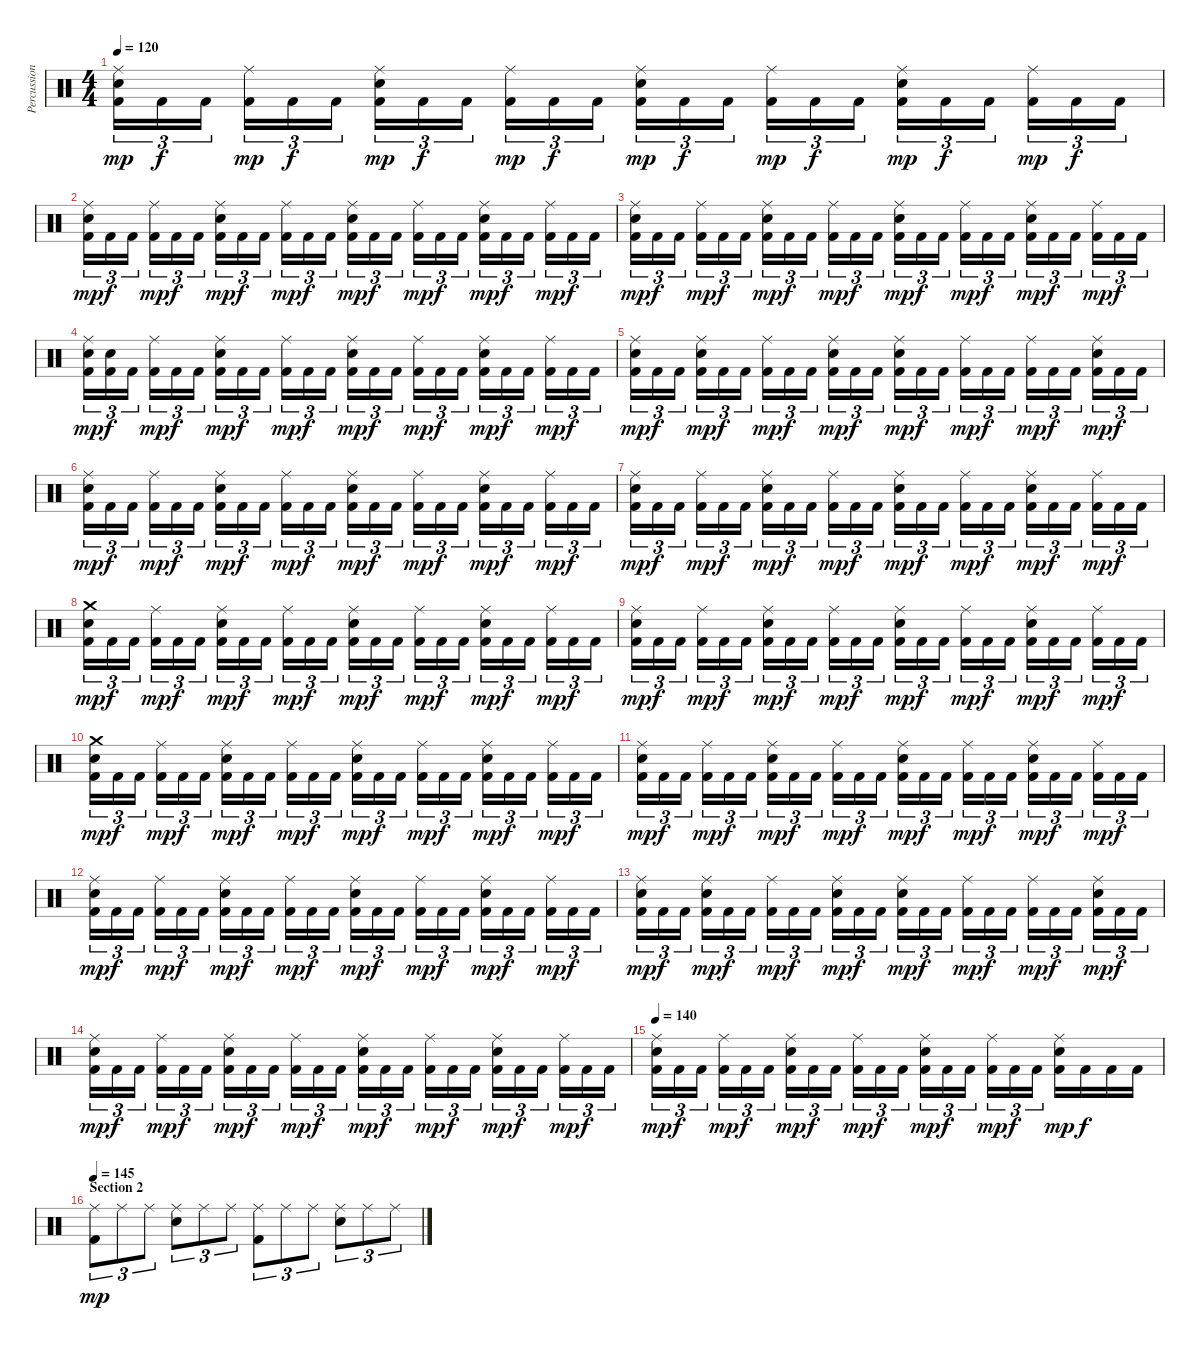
\track ("Percussion" "Percussion") {instrument percussion}
\staff {score}
\articulation defaults
\ts (4 4)
\tempo 120
\clef neutral
\ks c
("Ride (middle)" "Electric Snare (hit)" "Kick (hit) 2").16{tu (3 2) dy mp} "Kick (hit) 2".16{tu (3 2) dy f} "Kick (hit) 2".16{tu (3 2)} ("Ride (middle)" "Kick (hit) 2").16{tu (3 2) dy mp} "Kick (hit) 2".16{tu (3 2) dy f} "Kick (hit) 2".16{tu (3 2)} ("Ride (middle)" "Electric Snare (hit)" "Kick (hit) 2").16{tu (3 2) dy mp} "Kick (hit) 2".16{tu (3 2) dy f} "Kick (hit) 2".16{tu (3 2)} ("Ride (middle)" "Kick (hit) 2").16{tu (3 2) dy mp} "Kick (hit) 2".16{tu (3 2) dy f} "Kick (hit) 2".16{tu (3 2)} ("Ride (middle)" "Electric Snare (hit)" "Kick (hit) 2").16{tu (3 2) dy mp} "Kick (hit) 2".16{tu (3 2) dy f} "Kick (hit) 2".16{tu (3 2)} ("Ride (middle)" "Kick (hit) 2").16{tu (3 2) dy mp} "Kick (hit) 2".16{tu (3 2) dy f} "Kick (hit) 2".16{tu (3 2)} ("Ride (middle)" "Electric Snare (hit)" "Kick (hit) 2").16{tu (3 2) dy mp} "Kick (hit) 2".16{tu (3 2) dy f} "Kick (hit) 2".16{tu (3 2)} ("Ride (middle)" "Kick (hit) 2").16{tu (3 2) dy mp} "Kick (hit) 2".16{tu (3 2) dy f} "Kick (hit) 2".16{tu (3 2)} |
("Ride (middle)" "Electric Snare (hit)" "Kick (hit) 2").16{tu (3 2) dy mp} "Kick (hit) 2".16{tu (3 2) dy f} "Kick (hit) 2".16{tu (3 2)} ("Ride (middle)" "Kick (hit) 2").16{tu (3 2) dy mp} "Kick (hit) 2".16{tu (3 2) dy f} "Kick (hit) 2".16{tu (3 2)} ("Ride (middle)" "Electric Snare (hit)" "Kick (hit) 2").16{tu (3 2) dy mp} "Kick (hit) 2".16{tu (3 2) dy f} "Kick (hit) 2".16{tu (3 2)} ("Ride (middle)" "Kick (hit) 2").16{tu (3 2) dy mp} "Kick (hit) 2".16{tu (3 2) dy f} "Kick (hit) 2".16{tu (3 2)} ("Ride (middle)" "Electric Snare (hit)" "Kick (hit) 2").16{tu (3 2) dy mp} "Kick (hit) 2".16{tu (3 2) dy f} "Kick (hit) 2".16{tu (3 2)} ("Ride (middle)" "Kick (hit) 2").16{tu (3 2) dy mp} "Kick (hit) 2".16{tu (3 2) dy f} "Kick (hit) 2".16{tu (3 2)} ("Ride (middle)" "Electric Snare (hit)" "Kick (hit) 2").16{tu (3 2) dy mp} "Kick (hit) 2".16{tu (3 2) dy f} "Kick (hit) 2".16{tu (3 2)} ("Ride (middle)" "Kick (hit) 2").16{tu (3 2) dy mp} "Kick (hit) 2".16{tu (3 2) dy f} "Kick (hit) 2".16{tu (3 2)} |
("Ride (middle)" "Electric Snare (hit)" "Kick (hit) 2").16{tu (3 2) dy mp} "Kick (hit) 2".16{tu (3 2) dy f} "Kick (hit) 2".16{tu (3 2)} ("Ride (middle)" "Kick (hit) 2").16{tu (3 2) dy mp} "Kick (hit) 2".16{tu (3 2) dy f} "Kick (hit) 2".16{tu (3 2)} ("Ride (middle)" "Electric Snare (hit)" "Kick (hit) 2").16{tu (3 2) dy mp} "Kick (hit) 2".16{tu (3 2) dy f} "Kick (hit) 2".16{tu (3 2)} ("Ride (middle)" "Kick (hit) 2").16{tu (3 2) dy mp} "Kick (hit) 2".16{tu (3 2) dy f} "Kick (hit) 2".16{tu (3 2)} ("Ride (middle)" "Electric Snare (hit)" "Kick (hit) 2").16{tu (3 2) dy mp} "Kick (hit) 2".16{tu (3 2) dy f} "Kick (hit) 2".16{tu (3 2)} ("Ride (middle)" "Kick (hit) 2").16{tu (3 2) dy mp} "Kick (hit) 2".16{tu (3 2) dy f} "Kick (hit) 2".16{tu (3 2)} ("Ride (middle)" "Electric Snare (hit)" "Kick (hit) 2").16{tu (3 2) dy mp} "Kick (hit) 2".16{tu (3 2) dy f} "Kick (hit) 2".16{tu (3 2)} ("Ride (middle)" "Kick (hit) 2").16{tu (3 2) dy mp} "Kick (hit) 2".16{tu (3 2) dy f} "Kick (hit) 2".16{tu (3 2)} |
("Ride (middle)" "Electric Snare (hit)" "Kick (hit) 2").16{tu (3 2) dy mp} ("Electric Snare (hit)" "Kick (hit) 2").16{tu (3 2) dy f} "Kick (hit) 2".16{tu (3 2)} ("Ride (middle)" "Kick (hit) 2").16{tu (3 2) dy mp} "Kick (hit) 2".16{tu (3 2) dy f} "Kick (hit) 2".16{tu (3 2)} ("Ride (middle)" "Electric Snare (hit)" "Kick (hit) 2").16{tu (3 2) dy mp} "Kick (hit) 2".16{tu (3 2) dy f} "Kick (hit) 2".16{tu (3 2)} ("Ride (middle)" "Kick (hit) 2").16{tu (3 2) dy mp} "Kick (hit) 2".16{tu (3 2) dy f} "Kick (hit) 2".16{tu (3 2)} ("Ride (middle)" "Electric Snare (hit)" "Kick (hit) 2").16{tu (3 2) dy mp} "Kick (hit) 2".16{tu (3 2) dy f} "Kick (hit) 2".16{tu (3 2)} ("Ride (middle)" "Kick (hit) 2").16{tu (3 2) dy mp} "Kick (hit) 2".16{tu (3 2) dy f} "Kick (hit) 2".16{tu (3 2)} ("Ride (middle)" "Electric Snare (hit)" "Kick (hit) 2").16{tu (3 2) dy mp} "Kick (hit) 2".16{tu (3 2) dy f} "Kick (hit) 2".16{tu (3 2)} ("Ride (middle)" "Kick (hit) 2").16{tu (3 2) dy mp} "Kick (hit) 2".16{tu (3 2) dy f} "Kick (hit) 2".16{tu (3 2)} |
("Ride (middle)" "Electric Snare (hit)" "Kick (hit) 2").16{tu (3 2) dy mp} "Kick (hit) 2".16{tu (3 2) dy f} "Kick (hit) 2".16{tu (3 2)} ("Ride (middle)" "Electric Snare (hit)" "Kick (hit) 2").16{tu (3 2) dy mp} "Kick (hit) 2".16{tu (3 2) dy f} "Kick (hit) 2".16{tu (3 2)} ("Ride (middle)" "Kick (hit) 2").16{tu (3 2) dy mp} "Kick (hit) 2".16{tu (3 2) dy f} "Kick (hit) 2".16{tu (3 2)} ("Ride (middle)" "Electric Snare (hit)" "Kick (hit) 2").16{tu (3 2) dy mp} "Kick (hit) 2".16{tu (3 2) dy f} "Kick (hit) 2".16{tu (3 2)} ("Ride (middle)" "Electric Snare (hit)" "Kick (hit) 2").16{tu (3 2) dy mp} "Kick (hit) 2".16{tu (3 2) dy f} "Kick (hit) 2".16{tu (3 2)} ("Ride (middle)" "Kick (hit) 2").16{tu (3 2) dy mp} "Kick (hit) 2".16{tu (3 2) dy f} "Kick (hit) 2".16{tu (3 2)} ("Ride (middle)" "Kick (hit) 2").16{tu (3 2) dy mp} "Kick (hit) 2".16{tu (3 2) dy f} "Kick (hit) 2".16{tu (3 2)} ("Ride (middle)" "Electric Snare (hit)" "Kick (hit) 2").16{tu (3 2) dy mp} "Kick (hit) 2".16{tu (3 2) dy f} "Kick (hit) 2".16{tu (3 2)} |
("Ride (middle)" "Electric Snare (hit)" "Kick (hit) 2").16{tu (3 2) dy mp} "Kick (hit) 2".16{tu (3 2) dy f} "Kick (hit) 2".16{tu (3 2)} ("Ride (middle)" "Kick (hit) 2").16{tu (3 2) dy mp} "Kick (hit) 2".16{tu (3 2) dy f} "Kick (hit) 2".16{tu (3 2)} ("Ride (middle)" "Electric Snare (hit)" "Kick (hit) 2").16{tu (3 2) dy mp} "Kick (hit) 2".16{tu (3 2) dy f} "Kick (hit) 2".16{tu (3 2)} ("Ride (middle)" "Kick (hit) 2").16{tu (3 2) dy mp} "Kick (hit) 2".16{tu (3 2) dy f} "Kick (hit) 2".16{tu (3 2)} ("Ride (middle)" "Electric Snare (hit)" "Kick (hit) 2").16{tu (3 2) dy mp} "Kick (hit) 2".16{tu (3 2) dy f} "Kick (hit) 2".16{tu (3 2)} ("Ride (middle)" "Kick (hit) 2").16{tu (3 2) dy mp} "Kick (hit) 2".16{tu (3 2) dy f} "Kick (hit) 2".16{tu (3 2)} ("Ride (middle)" "Electric Snare (hit)" "Kick (hit) 2").16{tu (3 2) dy mp} "Kick (hit) 2".16{tu (3 2) dy f} "Kick (hit) 2".16{tu (3 2)} ("Ride (middle)" "Kick (hit) 2").16{tu (3 2) dy mp} "Kick (hit) 2".16{tu (3 2) dy f} "Kick (hit) 2".16{tu (3 2)} |
("Ride (middle)" "Electric Snare (hit)" "Kick (hit) 2").16{tu (3 2) dy mp} "Kick (hit) 2".16{tu (3 2) dy f} "Kick (hit) 2".16{tu (3 2)} ("Ride (middle)" "Kick (hit) 2").16{tu (3 2) dy mp} "Kick (hit) 2".16{tu (3 2) dy f} "Kick (hit) 2".16{tu (3 2)} ("Ride (middle)" "Electric Snare (hit)" "Kick (hit) 2").16{tu (3 2) dy mp} "Kick (hit) 2".16{tu (3 2) dy f} "Kick (hit) 2".16{tu (3 2)} ("Ride (middle)" "Kick (hit) 2").16{tu (3 2) dy mp} "Kick (hit) 2".16{tu (3 2) dy f} "Kick (hit) 2".16{tu (3 2)} ("Ride (middle)" "Electric Snare (hit)" "Kick (hit) 2").16{tu (3 2) dy mp} "Kick (hit) 2".16{tu (3 2) dy f} "Kick (hit) 2".16{tu (3 2)} ("Ride (middle)" "Kick (hit) 2").16{tu (3 2) dy mp} "Kick (hit) 2".16{tu (3 2) dy f} "Kick (hit) 2".16{tu (3 2)} ("Ride (middle)" "Electric Snare (hit)" "Kick (hit) 2").16{tu (3 2) dy mp} "Kick (hit) 2".16{tu (3 2) dy f} "Kick (hit) 2".16{tu (3 2)} ("Ride (middle)" "Kick (hit) 2").16{tu (3 2) dy mp} "Kick (hit) 2".16{tu (3 2) dy f} "Kick (hit) 2".16{tu (3 2)} |
("Crash medium (hit)" "Electric Snare (hit)" "Kick (hit) 2").16{tu (3 2) dy mp} "Kick (hit) 2".16{tu (3 2) dy f} "Kick (hit) 2".16{tu (3 2)} ("Ride (middle)" "Kick (hit) 2").16{tu (3 2) dy mp} "Kick (hit) 2".16{tu (3 2) dy f} "Kick (hit) 2".16{tu (3 2)} ("Ride (middle)" "Electric Snare (hit)" "Kick (hit) 2").16{tu (3 2) dy mp} "Kick (hit) 2".16{tu (3 2) dy f} "Kick (hit) 2".16{tu (3 2)} ("Ride (middle)" "Kick (hit) 2").16{tu (3 2) dy mp} "Kick (hit) 2".16{tu (3 2) dy f} "Kick (hit) 2".16{tu (3 2)} ("Ride (middle)" "Electric Snare (hit)" "Kick (hit) 2").16{tu (3 2) dy mp} "Kick (hit) 2".16{tu (3 2) dy f} "Kick (hit) 2".16{tu (3 2)} ("Ride (middle)" "Kick (hit) 2").16{tu (3 2) dy mp} "Kick (hit) 2".16{tu (3 2) dy f} "Kick (hit) 2".16{tu (3 2)} ("Ride (middle)" "Electric Snare (hit)" "Kick (hit) 2").16{tu (3 2) dy mp} "Kick (hit) 2".16{tu (3 2) dy f} "Kick (hit) 2".16{tu (3 2)} ("Ride (middle)" "Kick (hit) 2").16{tu (3 2) dy mp} "Kick (hit) 2".16{tu (3 2) dy f} "Kick (hit) 2".16{tu (3 2)} |
("Ride (middle)" "Electric Snare (hit)" "Kick (hit) 2").16{tu (3 2) dy mp} "Kick (hit) 2".16{tu (3 2) dy f} "Kick (hit) 2".16{tu (3 2)} ("Ride (middle)" "Kick (hit) 2").16{tu (3 2) dy mp} "Kick (hit) 2".16{tu (3 2) dy f} "Kick (hit) 2".16{tu (3 2)} ("Ride (middle)" "Electric Snare (hit)" "Kick (hit) 2").16{tu (3 2) dy mp} "Kick (hit) 2".16{tu (3 2) dy f} "Kick (hit) 2".16{tu (3 2)} ("Ride (middle)" "Kick (hit) 2").16{tu (3 2) dy mp} "Kick (hit) 2".16{tu (3 2) dy f} "Kick (hit) 2".16{tu (3 2)} ("Ride (middle)" "Electric Snare (hit)" "Kick (hit) 2").16{tu (3 2) dy mp} "Kick (hit) 2".16{tu (3 2) dy f} "Kick (hit) 2".16{tu (3 2)} ("Ride (middle)" "Kick (hit) 2").16{tu (3 2) dy mp} "Kick (hit) 2".16{tu (3 2) dy f} "Kick (hit) 2".16{tu (3 2)} ("Ride (middle)" "Electric Snare (hit)" "Kick (hit) 2").16{tu (3 2) dy mp} "Kick (hit) 2".16{tu (3 2) dy f} "Kick (hit) 2".16{tu (3 2)} ("Ride (middle)" "Kick (hit) 2").16{tu (3 2) dy mp} "Kick (hit) 2".16{tu (3 2) dy f} "Kick (hit) 2".16{tu (3 2)} |
("Crash medium (hit)" "Electric Snare (hit)" "Kick (hit) 2").16{tu (3 2) dy mp} "Kick (hit) 2".16{tu (3 2) dy f} "Kick (hit) 2".16{tu (3 2)} ("Ride (middle)" "Kick (hit) 2").16{tu (3 2) dy mp} "Kick (hit) 2".16{tu (3 2) dy f} "Kick (hit) 2".16{tu (3 2)} ("Ride (middle)" "Electric Snare (hit)" "Kick (hit) 2").16{tu (3 2) dy mp} "Kick (hit) 2".16{tu (3 2) dy f} "Kick (hit) 2".16{tu (3 2)} ("Ride (middle)" "Kick (hit) 2").16{tu (3 2) dy mp} "Kick (hit) 2".16{tu (3 2) dy f} "Kick (hit) 2".16{tu (3 2)} ("Ride (middle)" "Electric Snare (hit)" "Kick (hit) 2").16{tu (3 2) dy mp} "Kick (hit) 2".16{tu (3 2) dy f} "Kick (hit) 2".16{tu (3 2)} ("Ride (middle)" "Kick (hit) 2").16{tu (3 2) dy mp} "Kick (hit) 2".16{tu (3 2) dy f} "Kick (hit) 2".16{tu (3 2)} ("Ride (middle)" "Electric Snare (hit)" "Kick (hit) 2").16{tu (3 2) dy mp} "Kick (hit) 2".16{tu (3 2) dy f} "Kick (hit) 2".16{tu (3 2)} ("Ride (middle)" "Kick (hit) 2").16{tu (3 2) dy mp} "Kick (hit) 2".16{tu (3 2) dy f} "Kick (hit) 2".16{tu (3 2)} |
("Ride (middle)" "Electric Snare (hit)" "Kick (hit) 2").16{tu (3 2) dy mp} "Kick (hit) 2".16{tu (3 2) dy f} "Kick (hit) 2".16{tu (3 2)} ("Ride (middle)" "Kick (hit) 2").16{tu (3 2) dy mp} "Kick (hit) 2".16{tu (3 2) dy f} "Kick (hit) 2".16{tu (3 2)} ("Ride (middle)" "Electric Snare (hit)" "Kick (hit) 2").16{tu (3 2) dy mp} "Kick (hit) 2".16{tu (3 2) dy f} "Kick (hit) 2".16{tu (3 2)} ("Ride (middle)" "Kick (hit) 2").16{tu (3 2) dy mp} "Kick (hit) 2".16{tu (3 2) dy f} "Kick (hit) 2".16{tu (3 2)} ("Ride (middle)" "Electric Snare (hit)" "Kick (hit) 2").16{tu (3 2) dy mp} "Kick (hit) 2".16{tu (3 2) dy f} "Kick (hit) 2".16{tu (3 2)} ("Ride (middle)" "Kick (hit) 2").16{tu (3 2) dy mp} "Kick (hit) 2".16{tu (3 2) dy f} "Kick (hit) 2".16{tu (3 2)} ("Ride (middle)" "Electric Snare (hit)" "Kick (hit) 2").16{tu (3 2) dy mp} "Kick (hit) 2".16{tu (3 2) dy f} "Kick (hit) 2".16{tu (3 2)} ("Ride (middle)" "Kick (hit) 2").16{tu (3 2) dy mp} "Kick (hit) 2".16{tu (3 2) dy f} "Kick (hit) 2".16{tu (3 2)} |
("Ride (middle)" "Electric Snare (hit)" "Kick (hit) 2").16{tu (3 2) dy mp} "Kick (hit) 2".16{tu (3 2) dy f} "Kick (hit) 2".16{tu (3 2)} ("Ride (middle)" "Kick (hit) 2").16{tu (3 2) dy mp} "Kick (hit) 2".16{tu (3 2) dy f} "Kick (hit) 2".16{tu (3 2)} ("Ride (middle)" "Electric Snare (hit)" "Kick (hit) 2").16{tu (3 2) dy mp} "Kick (hit) 2".16{tu (3 2) dy f} "Kick (hit) 2".16{tu (3 2)} ("Ride (middle)" "Kick (hit) 2").16{tu (3 2) dy mp} "Kick (hit) 2".16{tu (3 2) dy f} "Kick (hit) 2".16{tu (3 2)} ("Ride (middle)" "Electric Snare (hit)" "Kick (hit) 2").16{tu (3 2) dy mp} "Kick (hit) 2".16{tu (3 2) dy f} "Kick (hit) 2".16{tu (3 2)} ("Ride (middle)" "Kick (hit) 2").16{tu (3 2) dy mp} "Kick (hit) 2".16{tu (3 2) dy f} "Kick (hit) 2".16{tu (3 2)} ("Ride (middle)" "Electric Snare (hit)" "Kick (hit) 2").16{tu (3 2) dy mp} "Kick (hit) 2".16{tu (3 2) dy f} "Kick (hit) 2".16{tu (3 2)} ("Ride (middle)" "Kick (hit) 2").16{tu (3 2) dy mp} "Kick (hit) 2".16{tu (3 2) dy f} "Kick (hit) 2".16{tu (3 2)} |
("Ride (middle)" "Electric Snare (hit)" "Kick (hit) 2").16{tu (3 2) dy mp} "Kick (hit) 2".16{tu (3 2) dy f} "Kick (hit) 2".16{tu (3 2)} ("Ride (middle)" "Electric Snare (hit)" "Kick (hit) 2").16{tu (3 2) dy mp} "Kick (hit) 2".16{tu (3 2) dy f} "Kick (hit) 2".16{tu (3 2)} ("Ride (middle)" "Kick (hit) 2").16{tu (3 2) dy mp} "Kick (hit) 2".16{tu (3 2) dy f} "Kick (hit) 2".16{tu (3 2)} ("Ride (middle)" "Electric Snare (hit)" "Kick (hit) 2").16{tu (3 2) dy mp} "Kick (hit) 2".16{tu (3 2) dy f} "Kick (hit) 2".16{tu (3 2)} ("Ride (middle)" "Electric Snare (hit)" "Kick (hit) 2").16{tu (3 2) dy mp} "Kick (hit) 2".16{tu (3 2) dy f} "Kick (hit) 2".16{tu (3 2)} ("Ride (middle)" "Kick (hit) 2").16{tu (3 2) dy mp} "Kick (hit) 2".16{tu (3 2) dy f} "Kick (hit) 2".16{tu (3 2)} ("Ride (middle)" "Kick (hit) 2").16{tu (3 2) dy mp} "Kick (hit) 2".16{tu (3 2) dy f} "Kick (hit) 2".16{tu (3 2)} ("Ride (middle)" "Electric Snare (hit)" "Kick (hit) 2").16{tu (3 2) dy mp} "Kick (hit) 2".16{tu (3 2) dy f} "Kick (hit) 2".16{tu (3 2)} |
("Ride (middle)" "Electric Snare (hit)" "Kick (hit) 2").16{tu (3 2) dy mp} "Kick (hit) 2".16{tu (3 2) dy f} "Kick (hit) 2".16{tu (3 2)} ("Ride (middle)" "Kick (hit) 2").16{tu (3 2) dy mp} "Kick (hit) 2".16{tu (3 2) dy f} "Kick (hit) 2".16{tu (3 2)} ("Ride (middle)" "Electric Snare (hit)" "Kick (hit) 2").16{tu (3 2) dy mp} "Kick (hit) 2".16{tu (3 2) dy f} "Kick (hit) 2".16{tu (3 2)} ("Ride (middle)" "Kick (hit) 2").16{tu (3 2) dy mp} "Kick (hit) 2".16{tu (3 2) dy f} "Kick (hit) 2".16{tu (3 2)} ("Ride (middle)" "Electric Snare (hit)" "Kick (hit) 2").16{tu (3 2) dy mp} "Kick (hit) 2".16{tu (3 2) dy f} "Kick (hit) 2".16{tu (3 2)} ("Ride (middle)" "Kick (hit) 2").16{tu (3 2) dy mp} "Kick (hit) 2".16{tu (3 2) dy f} "Kick (hit) 2".16{tu (3 2)} ("Ride (middle)" "Electric Snare (hit)" "Kick (hit) 2").16{tu (3 2) dy mp} "Kick (hit) 2".16{tu (3 2) dy f} "Kick (hit) 2".16{tu (3 2)} ("Ride (middle)" "Kick (hit) 2").16{tu (3 2) dy mp} "Kick (hit) 2".16{tu (3 2) dy f} "Kick (hit) 2".16{tu (3 2)} |
\tempo 140
("Ride (middle)" "Electric Snare (hit)" "Kick (hit) 2").16{tu (3 2) dy mp} "Kick (hit) 2".16{tu (3 2) dy f} "Kick (hit) 2".16{tu (3 2)} ("Ride (middle)" "Kick (hit) 2").16{tu (3 2) dy mp} "Kick (hit) 2".16{tu (3 2) dy f} "Kick (hit) 2".16{tu (3 2)} ("Ride (middle)" "Electric Snare (hit)" "Kick (hit) 2").16{tu (3 2) dy mp} "Kick (hit) 2".16{tu (3 2) dy f} "Kick (hit) 2".16{tu (3 2)} ("Ride (middle)" "Kick (hit) 2").16{tu (3 2) dy mp} "Kick (hit) 2".16{tu (3 2) dy f} "Kick (hit) 2".16{tu (3 2)} ("Ride (middle)" "Electric Snare (hit)" "Kick (hit) 2").16{tu (3 2) dy mp} "Kick (hit) 2".16{tu (3 2) dy f} "Kick (hit) 2".16{tu (3 2)} ("Ride (middle)" "Kick (hit) 2").16{tu (3 2) dy mp} "Kick (hit) 2".16{tu (3 2) dy f} "Kick (hit) 2".16{tu (3 2)} ("Ride (middle)" "Electric Snare (hit)" "Kick (hit) 2").16{dy mp} "Kick (hit) 2".16{dy f} "Kick (hit) 2".16 "Kick (hit) 2".16 |
\section ("" "Section 2")
\tempo 145
("Ride (middle)" "Kick (hit) 2").8{tu (3 2) dy mp} "Ride (middle)".8{tu (3 2)} "Ride (middle)".8{tu (3 2)} ("Ride (middle)" "Electric Snare (hit)").8{tu (3 2)} "Ride (middle)".8{tu (3 2)} "Ride (middle)".8{tu (3 2)} ("Ride (middle)" "Kick (hit) 2").8{tu (3 2)} "Ride (middle)".8{tu (3 2)} "Ride (middle)".8{tu (3 2)} ("Ride (middle)" "Electric Snare (hit)").8{tu (3 2)} "Ride (middle)".8{tu (3 2)} "Ride (middle)".8{tu (3 2)}
